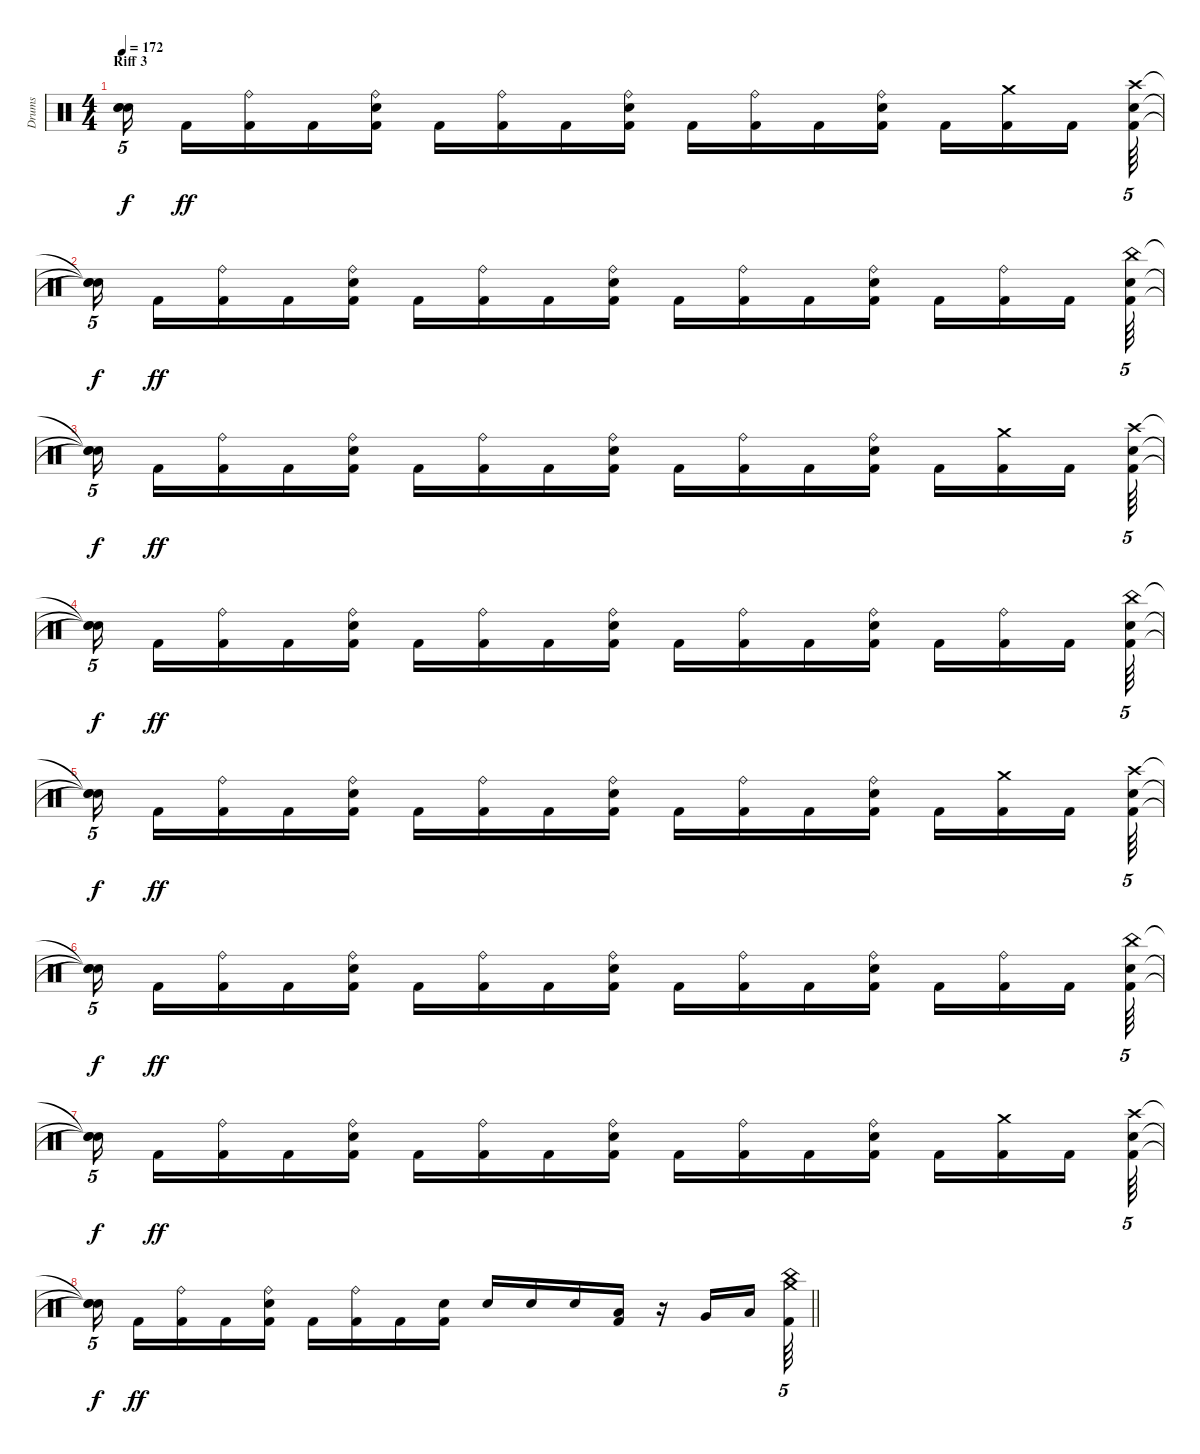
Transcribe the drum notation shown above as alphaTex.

\track ("Drums" "Drums") {instrument percussion}
\staff {score}
\articulation defaults
\ts (4 4)
\section ("" "Riff 3")
\tempo 172
\clef neutral
\ks c
("Snare (hit)"{t} "Snare (hit)"{t} "Snare (hit)"{t}).16{tu (5 4) dy f beam splitsecondary} "Kick (hit) 2".16{dy ff} ("Kick (hit) 2" "Ride (bell)").16 "Kick (hit) 2".16 ("Kick (hit) 2" "Snare (hit) 2" "Ride (bell)").16 "Kick (hit) 2".16 ("Kick (hit) 2" "Ride (bell)").16 "Kick (hit) 2".16 ("Kick (hit) 2" "Snare (hit) 2" "Ride (bell)").16 "Kick (hit) 2".16 ("Kick (hit) 2" "Ride (bell)").16 "Kick (hit) 2".16 ("Kick (hit) 2" "Snare (hit) 2" "Ride (bell)").16 "Kick (hit) 2".16 ("Crash medium (hit)" "Kick (hit) 2").16 "Kick (hit) 2".16{beam splitsecondary} ("Crash high (hit)" "Kick (hit) 2" "Snare (hit) 2").64{tu (5 4)} |
("Snare (hit)"{t} "Snare (hit)"{t} "Snare (hit)"{t}).16{tu (5 4) dy f beam splitsecondary} "Kick (hit) 2".16{dy ff} ("Kick (hit) 2" "Ride (bell)").16 "Kick (hit) 2".16 ("Kick (hit) 2" "Snare (hit) 2" "Ride (bell)").16 "Kick (hit) 2".16 ("Kick (hit) 2" "Ride (bell)").16 "Kick (hit) 2".16 ("Kick (hit) 2" "Snare (hit) 2" "Ride (bell)").16 "Kick (hit) 2".16 ("Kick (hit) 2" "Ride (bell)").16 "Kick (hit) 2".16 ("Kick (hit) 2" "Snare (hit) 2" "Ride (bell)").16 "Kick (hit) 2".16 ("Kick (hit) 2" "Ride (bell)").16 "Kick (hit) 2".16{beam splitsecondary} ("China (hit)" "Kick (hit) 2" "Snare (hit) 2").64{tu (5 4)} |
("Snare (hit)"{t} "Snare (hit)"{t} "Snare (hit)"{t}).16{tu (5 4) dy f beam splitsecondary} "Kick (hit) 2".16{dy ff} ("Kick (hit) 2" "Ride (bell)").16 "Kick (hit) 2".16 ("Kick (hit) 2" "Snare (hit) 2" "Ride (bell)").16 "Kick (hit) 2".16 ("Kick (hit) 2" "Ride (bell)").16 "Kick (hit) 2".16 ("Kick (hit) 2" "Snare (hit) 2" "Ride (bell)").16 "Kick (hit) 2".16 ("Kick (hit) 2" "Ride (bell)").16 "Kick (hit) 2".16 ("Kick (hit) 2" "Snare (hit) 2" "Ride (bell)").16 "Kick (hit) 2".16 ("Crash medium (hit)" "Kick (hit) 2").16 "Kick (hit) 2".16{beam splitsecondary} ("Crash high (hit)" "Kick (hit) 2" "Snare (hit) 2").64{tu (5 4)} |
("Snare (hit)"{t} "Snare (hit)"{t} "Snare (hit)"{t}).16{tu (5 4) dy f beam splitsecondary} "Kick (hit) 2".16{dy ff} ("Kick (hit) 2" "Ride (bell)").16 "Kick (hit) 2".16 ("Kick (hit) 2" "Snare (hit) 2" "Ride (bell)").16 "Kick (hit) 2".16 ("Kick (hit) 2" "Ride (bell)").16 "Kick (hit) 2".16 ("Kick (hit) 2" "Snare (hit) 2" "Ride (bell)").16 "Kick (hit) 2".16 ("Kick (hit) 2" "Ride (bell)").16 "Kick (hit) 2".16 ("Kick (hit) 2" "Snare (hit) 2" "Ride (bell)").16 "Kick (hit) 2".16 ("Kick (hit) 2" "Ride (bell)").16 "Kick (hit) 2".16{beam splitsecondary} ("China (hit)" "Kick (hit) 2" "Snare (hit) 2").64{tu (5 4)} |
("Snare (hit)"{t} "Snare (hit)"{t} "Snare (hit)"{t}).16{tu (5 4) dy f beam splitsecondary} "Kick (hit) 2".16{dy ff} ("Kick (hit) 2" "Ride (bell)").16 "Kick (hit) 2".16 ("Kick (hit) 2" "Snare (hit) 2" "Ride (bell)").16 "Kick (hit) 2".16 ("Kick (hit) 2" "Ride (bell)").16 "Kick (hit) 2".16 ("Kick (hit) 2" "Snare (hit) 2" "Ride (bell)").16 "Kick (hit) 2".16 ("Kick (hit) 2" "Ride (bell)").16 "Kick (hit) 2".16 ("Kick (hit) 2" "Snare (hit) 2" "Ride (bell)").16 "Kick (hit) 2".16 ("Crash medium (hit)" "Kick (hit) 2").16 "Kick (hit) 2".16{beam splitsecondary} ("Crash high (hit)" "Kick (hit) 2" "Snare (hit) 2").64{tu (5 4)} |
("Snare (hit)"{t} "Snare (hit)"{t} "Snare (hit)"{t}).16{tu (5 4) dy f beam splitsecondary} "Kick (hit) 2".16{dy ff} ("Kick (hit) 2" "Ride (bell)").16 "Kick (hit) 2".16 ("Kick (hit) 2" "Snare (hit) 2" "Ride (bell)").16 "Kick (hit) 2".16 ("Kick (hit) 2" "Ride (bell)").16 "Kick (hit) 2".16 ("Kick (hit) 2" "Snare (hit) 2" "Ride (bell)").16 "Kick (hit) 2".16 ("Kick (hit) 2" "Ride (bell)").16 "Kick (hit) 2".16 ("Kick (hit) 2" "Snare (hit) 2" "Ride (bell)").16 "Kick (hit) 2".16 ("Kick (hit) 2" "Ride (bell)").16 "Kick (hit) 2".16{beam splitsecondary} ("China (hit)" "Kick (hit) 2" "Snare (hit) 2").64{tu (5 4)} |
("Snare (hit)"{t} "Snare (hit)"{t} "Snare (hit)"{t}).16{tu (5 4) dy f beam splitsecondary} "Kick (hit) 2".16{dy ff} ("Kick (hit) 2" "Ride (bell)").16 "Kick (hit) 2".16 ("Kick (hit) 2" "Snare (hit) 2" "Ride (bell)").16 "Kick (hit) 2".16 ("Kick (hit) 2" "Ride (bell)").16 "Kick (hit) 2".16 ("Kick (hit) 2" "Snare (hit) 2" "Ride (bell)").16 "Kick (hit) 2".16 ("Kick (hit) 2" "Ride (bell)").16 "Kick (hit) 2".16 ("Kick (hit) 2" "Snare (hit) 2" "Ride (bell)").16 "Kick (hit) 2".16 ("Crash medium (hit)" "Kick (hit) 2").16 "Kick (hit) 2".16{beam splitsecondary} ("Crash high (hit)" "Kick (hit) 2" "Snare (hit) 2").64{tu (5 4)} |
\barLineRight lightlight
("Snare (hit)"{t} "Snare (hit)"{t} "Snare (hit)"{t}).16{tu (5 4) dy f beam splitsecondary} "Kick (hit) 2".16{dy ff} ("Kick (hit) 2" "Ride (bell)").16 "Kick (hit) 2".16 ("Kick (hit) 2" "Snare (hit) 2" "Ride (bell)").16 "Kick (hit) 2".16 ("Kick (hit) 2" "Ride (bell)").16 "Kick (hit) 2".16 ("Kick (hit) 2" "Snare (hit) 2").16 "Snare (hit) 2".16 "Snare (hit) 2".16 "Snare (hit) 2".16 ("Kick (hit) 2" "Low Tom (hit)").16 r.16 "Very Low Tom (hit)".16 "Low Tom (hit)".16{beam splitsecondary} ("China (hit)" "Crash medium (hit)" "Kick (hit) 2").64{tu (5 4)}
